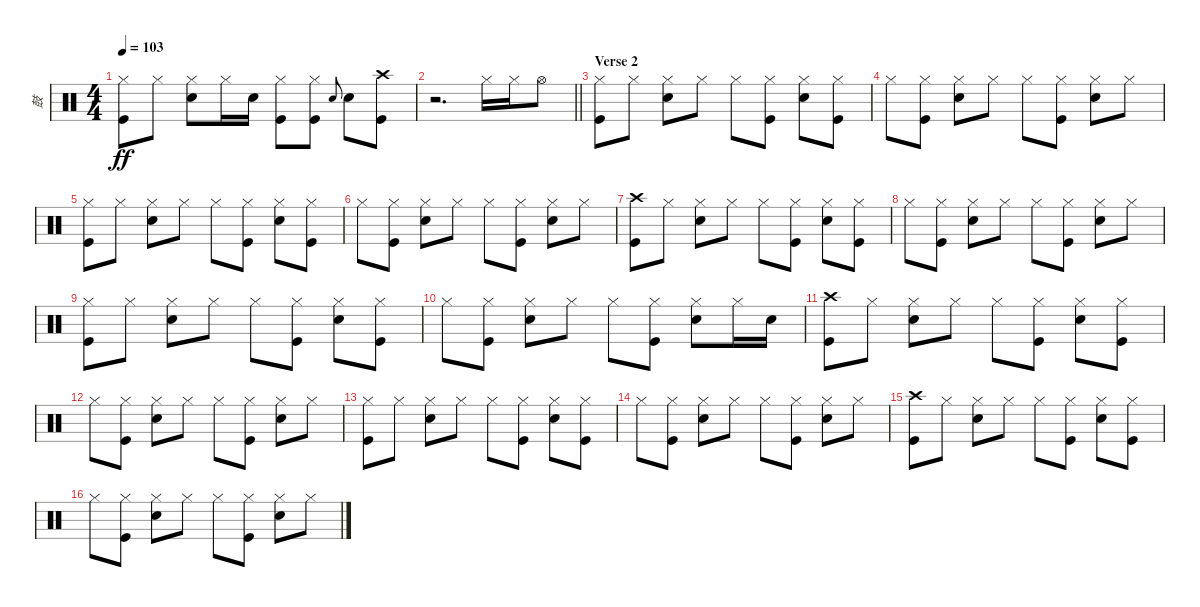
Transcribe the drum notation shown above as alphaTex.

\track ("鼓" "鼓") {instrument percussion}
\staff {score}
\articulation defaults
\ts (4 4)
\tempo 103
\clef neutral
\ks c
("Hi-Hat (closed)" "Kick (hit)").8{dy ff} "Hi-Hat (closed)".8 ("Hi-Hat (closed)" "Snare (hit) 2").8 "Hi-Hat (closed)".16 "Snare (hit) 2".16 ("Hi-Hat (closed)" "Kick (hit)").8 ("Hi-Hat (closed)" "Kick (hit)").8 "Snare (hit) 2".8{gr onbeat} "Snare (hit) 2".8 ("Crash high (hit)" "Kick (hit)").8 |
\barLineRight lightlight
r.2{d} "Hi-Hat (closed)".16 "Hi-Hat (closed)".16 "Hi-Hat (open)".8 |
\section ("" "Verse 2")
("Hi-Hat (closed)" "Kick (hit)").8 "Hi-Hat (closed)".8 ("Hi-Hat (closed)" "Snare (hit) 2").8 "Hi-Hat (closed)".8 "Hi-Hat (closed)".8 ("Hi-Hat (closed)" "Kick (hit)").8 ("Hi-Hat (closed)" "Snare (hit) 2").8 ("Hi-Hat (closed)" "Kick (hit)").8 |
"Hi-Hat (closed)".8 ("Hi-Hat (closed)" "Kick (hit)").8 ("Hi-Hat (closed)" "Snare (hit) 2").8 "Hi-Hat (closed)".8 "Hi-Hat (closed)".8 ("Hi-Hat (closed)" "Kick (hit)").8 ("Hi-Hat (closed)" "Snare (hit) 2").8 "Hi-Hat (closed)".8 |
("Hi-Hat (closed)" "Kick (hit)").8 "Hi-Hat (closed)".8 ("Hi-Hat (closed)" "Snare (hit) 2").8 "Hi-Hat (closed)".8 "Hi-Hat (closed)".8 ("Hi-Hat (closed)" "Kick (hit)").8 ("Hi-Hat (closed)" "Snare (hit) 2").8 ("Hi-Hat (closed)" "Kick (hit)").8 |
"Hi-Hat (closed)".8 ("Hi-Hat (closed)" "Kick (hit)").8 ("Hi-Hat (closed)" "Snare (hit) 2").8 "Hi-Hat (closed)".8 "Hi-Hat (closed)".8 ("Hi-Hat (closed)" "Kick (hit)").8 ("Hi-Hat (closed)" "Snare (hit) 2").8 "Hi-Hat (closed)".8 |
("Crash high (hit)" "Kick (hit)").8 "Hi-Hat (closed)".8 ("Hi-Hat (closed)" "Snare (hit) 2").8 "Hi-Hat (closed)".8 "Hi-Hat (closed)".8 ("Hi-Hat (closed)" "Kick (hit)").8 ("Hi-Hat (closed)" "Snare (hit) 2").8 ("Hi-Hat (closed)" "Kick (hit)").8 |
"Hi-Hat (closed)".8 ("Hi-Hat (closed)" "Kick (hit)").8 ("Hi-Hat (closed)" "Snare (hit) 2").8 "Hi-Hat (closed)".8 "Hi-Hat (closed)".8 ("Hi-Hat (closed)" "Kick (hit)").8 ("Hi-Hat (closed)" "Snare (hit) 2").8 "Hi-Hat (closed)".8 |
("Hi-Hat (closed)" "Kick (hit)").8 "Hi-Hat (closed)".8 ("Hi-Hat (closed)" "Snare (hit) 2").8 "Hi-Hat (closed)".8 "Hi-Hat (closed)".8 ("Hi-Hat (closed)" "Kick (hit)").8 ("Hi-Hat (closed)" "Snare (hit) 2").8 ("Hi-Hat (closed)" "Kick (hit)").8 |
"Hi-Hat (closed)".8 ("Hi-Hat (closed)" "Kick (hit)").8 ("Hi-Hat (closed)" "Snare (hit) 2").8 "Hi-Hat (closed)".8 "Hi-Hat (closed)".8 ("Hi-Hat (closed)" "Kick (hit)").8 ("Hi-Hat (closed)" "Snare (hit) 2").8 "Hi-Hat (closed)".16 "Snare (hit) 2".16 |
("Crash high (hit)" "Kick (hit)").8 "Hi-Hat (closed)".8 ("Hi-Hat (closed)" "Snare (hit) 2").8 "Hi-Hat (closed)".8 "Hi-Hat (closed)".8 ("Hi-Hat (closed)" "Kick (hit)").8 ("Hi-Hat (closed)" "Snare (hit) 2").8 ("Hi-Hat (closed)" "Kick (hit)").8 |
"Hi-Hat (closed)".8 ("Hi-Hat (closed)" "Kick (hit)").8 ("Hi-Hat (closed)" "Snare (hit) 2").8 "Hi-Hat (closed)".8 "Hi-Hat (closed)".8 ("Hi-Hat (closed)" "Kick (hit)").8 ("Hi-Hat (closed)" "Snare (hit) 2").8 "Hi-Hat (closed)".8 |
("Hi-Hat (closed)" "Kick (hit)").8 "Hi-Hat (closed)".8 ("Hi-Hat (closed)" "Snare (hit) 2").8 "Hi-Hat (closed)".8 "Hi-Hat (closed)".8 ("Hi-Hat (closed)" "Kick (hit)").8 ("Hi-Hat (closed)" "Snare (hit) 2").8 ("Hi-Hat (closed)" "Kick (hit)").8 |
"Hi-Hat (closed)".8 ("Hi-Hat (closed)" "Kick (hit)").8 ("Hi-Hat (closed)" "Snare (hit) 2").8 "Hi-Hat (closed)".8 "Hi-Hat (closed)".8 ("Hi-Hat (closed)" "Kick (hit)").8 ("Hi-Hat (closed)" "Snare (hit) 2").8 "Hi-Hat (closed)".8 |
("Crash high (hit)" "Kick (hit)").8 "Hi-Hat (closed)".8 ("Hi-Hat (closed)" "Snare (hit) 2").8 "Hi-Hat (closed)".8 "Hi-Hat (closed)".8 ("Hi-Hat (closed)" "Kick (hit)").8 ("Hi-Hat (closed)" "Snare (hit) 2").8 ("Hi-Hat (closed)" "Kick (hit)").8 |
"Hi-Hat (closed)".8 ("Hi-Hat (closed)" "Kick (hit)").8 ("Hi-Hat (closed)" "Snare (hit) 2").8 "Hi-Hat (closed)".8 "Hi-Hat (closed)".8 ("Hi-Hat (closed)" "Kick (hit)").8 ("Hi-Hat (closed)" "Snare (hit) 2").8 "Hi-Hat (closed)".8
